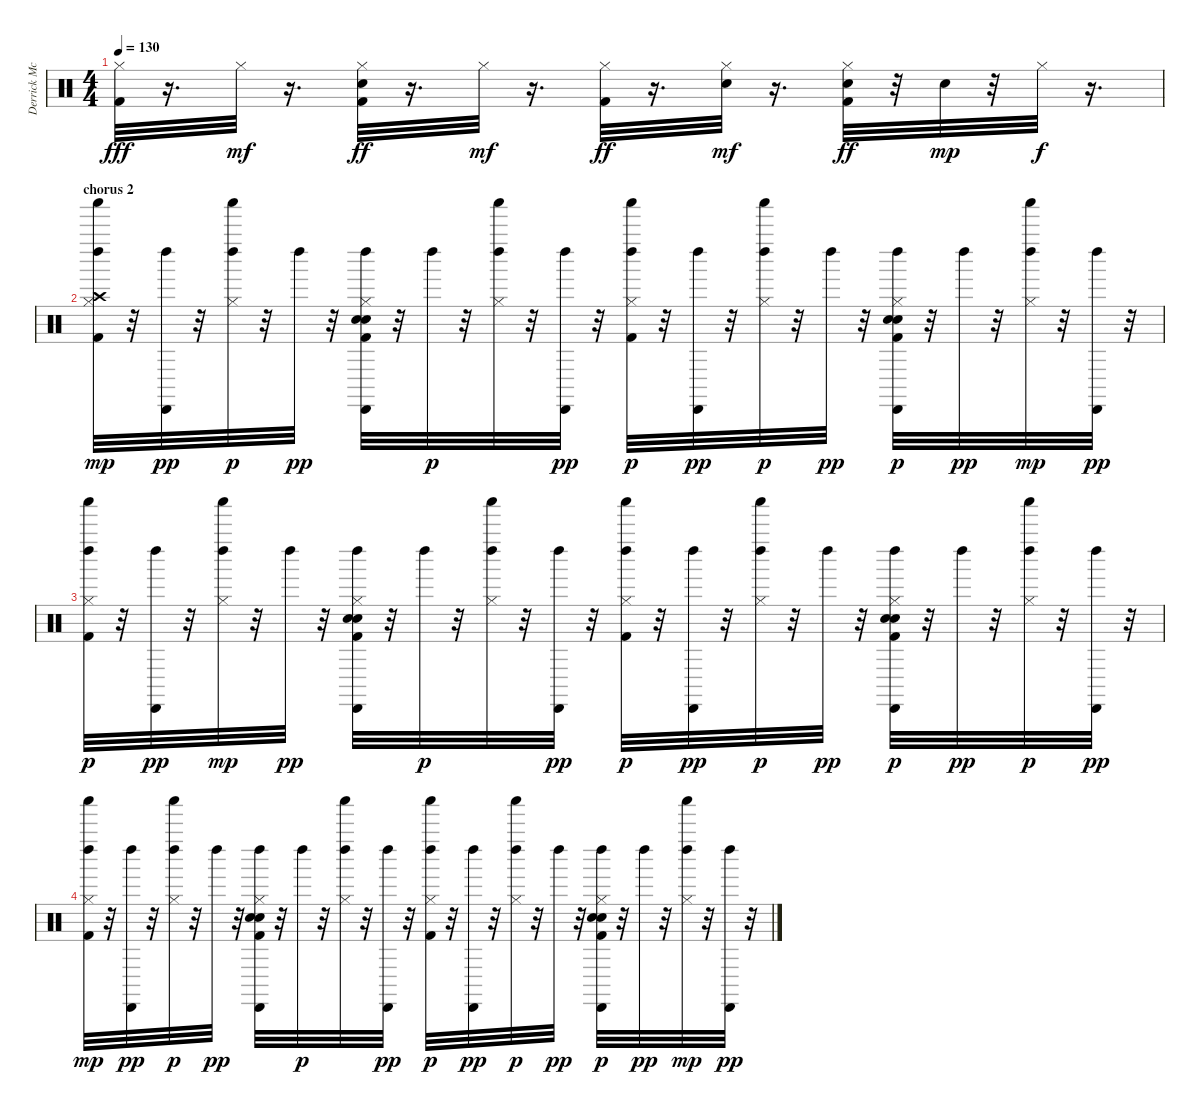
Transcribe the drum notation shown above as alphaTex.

\track ("Derrick McKenzie\\Sola Akingbola - Drums" "Derrick Mc") {instrument percussion}
\staff {score}
\articulation defaults
\ts (4 4)
\tempo 130
\clef neutral
\ks c
("Kick (hit) 2" "Hi-Hat (closed)").32{dy fff} r.16{d} "Hi-Hat (closed)".32{dy mf} r.16{d} ("Kick (hit) 2" "Electric Snare (hit)" "Hi-Hat (closed)").32{dy ff} r.16{d} "Hi-Hat (closed)".32{dy mf} r.16{d} ("Kick (hit) 2" "Hi-Hat (closed)").32{dy ff} r.16{d} ("Electric Snare (hit)" "Hi-Hat (closed)").32{dy mf} r.16{d} ("Kick (hit) 2" "Electric Snare (hit)" "Hi-Hat (closed)").32{dy ff} r.32 "Electric Snare (hit)".32{dy mp} r.32 "Hi-Hat (closed)".32{dy f} r.16{d} |
\section ("" "chorus 2")
("Kick (hit) 2" "Hi-Hat (closed)" "Crash high (hit)" "Left Maraca (hit)" "Shaker (hit)").32{dy mp} r.32 ("Cabasa (hit)" "Left Maraca (hit)").32{dy pp} r.32 ("Hi-Hat (closed)" "Left Maraca (hit)" "Shaker (hit)").32{dy p} r.32 "Left Maraca (hit)".32{dy pp} r.32 ("Kick (hit) 2" "Hand Clap (hit)" "Electric Snare (hit)" "Hi-Hat (closed)" "Cabasa (hit)" "Left Maraca (hit)").32 r.32 "Left Maraca (hit)".32{dy p} r.32 ("Hi-Hat (closed)" "Left Maraca (hit)" "Shaker (hit)").32 r.32 ("Cabasa (hit)" "Left Maraca (hit)").32{dy pp} r.32 ("Kick (hit) 2" "Hi-Hat (closed)" "Left Maraca (hit)" "Shaker (hit)").32{dy p} r.32 ("Cabasa (hit)" "Left Maraca (hit)").32{dy pp} r.32 ("Hi-Hat (closed)" "Left Maraca (hit)" "Shaker (hit)").32{dy p} r.32 "Left Maraca (hit)".32{dy pp} r.32 ("Kick (hit) 2" "Hand Clap (hit)" "Electric Snare (hit)" "Hi-Hat (closed)" "Cabasa (hit)" "Left Maraca (hit)").32{dy p} r.32 "Left Maraca (hit)".32{dy pp} r.32 ("Hi-Hat (closed)" "Left Maraca (hit)" "Shaker (hit)").32{dy mp} r.32 ("Cabasa (hit)" "Left Maraca (hit)").32{dy pp} r.32 |
("Kick (hit) 2" "Hi-Hat (closed)" "Left Maraca (hit)" "Shaker (hit)").32{dy p} r.32 ("Cabasa (hit)" "Left Maraca (hit)").32{dy pp} r.32 ("Hi-Hat (closed)" "Left Maraca (hit)" "Shaker (hit)").32{dy mp} r.32 "Left Maraca (hit)".32{dy pp} r.32 ("Kick (hit) 2" "Hand Clap (hit)" "Electric Snare (hit)" "Hi-Hat (closed)" "Cabasa (hit)" "Left Maraca (hit)").32 r.32 "Left Maraca (hit)".32{dy p} r.32 ("Hi-Hat (closed)" "Left Maraca (hit)" "Shaker (hit)").32 r.32 ("Cabasa (hit)" "Left Maraca (hit)").32{dy pp} r.32 ("Kick (hit) 2" "Hi-Hat (closed)" "Left Maraca (hit)" "Shaker (hit)").32{dy p} r.32 ("Cabasa (hit)" "Left Maraca (hit)").32{dy pp} r.32 ("Hi-Hat (closed)" "Left Maraca (hit)" "Shaker (hit)").32{dy p} r.32 "Left Maraca (hit)".32{dy pp} r.32 ("Kick (hit) 2" "Hand Clap (hit)" "Electric Snare (hit)" "Hi-Hat (closed)" "Cabasa (hit)" "Left Maraca (hit)").32{dy p} r.32 "Left Maraca (hit)".32{dy pp} r.32 ("Hi-Hat (closed)" "Left Maraca (hit)" "Shaker (hit)").32{dy p} r.32 ("Cabasa (hit)" "Left Maraca (hit)").32{dy pp} r.32 |
("Kick (hit) 2" "Hi-Hat (closed)" "Left Maraca (hit)" "Shaker (hit)").32{dy mp} r.32 ("Cabasa (hit)" "Left Maraca (hit)").32{dy pp} r.32 ("Hi-Hat (closed)" "Left Maraca (hit)" "Shaker (hit)").32{dy p} r.32 "Left Maraca (hit)".32{dy pp} r.32 ("Kick (hit) 2" "Hand Clap (hit)" "Electric Snare (hit)" "Hi-Hat (closed)" "Cabasa (hit)" "Left Maraca (hit)").32 r.32 "Left Maraca (hit)".32{dy p} r.32 ("Hi-Hat (closed)" "Left Maraca (hit)" "Shaker (hit)").32 r.32 ("Cabasa (hit)" "Left Maraca (hit)").32{dy pp} r.32 ("Kick (hit) 2" "Hi-Hat (closed)" "Left Maraca (hit)" "Shaker (hit)").32{dy p} r.32 ("Cabasa (hit)" "Left Maraca (hit)").32{dy pp} r.32 ("Hi-Hat (closed)" "Left Maraca (hit)" "Shaker (hit)").32{dy p} r.32 "Left Maraca (hit)".32{dy pp} r.32 ("Kick (hit) 2" "Hand Clap (hit)" "Electric Snare (hit)" "Hi-Hat (closed)" "Cabasa (hit)" "Left Maraca (hit)").32{dy p} r.32 "Left Maraca (hit)".32{dy pp} r.32 ("Hi-Hat (closed)" "Left Maraca (hit)" "Shaker (hit)").32{dy mp} r.32 ("Cabasa (hit)" "Left Maraca (hit)").32{dy pp} r.32
